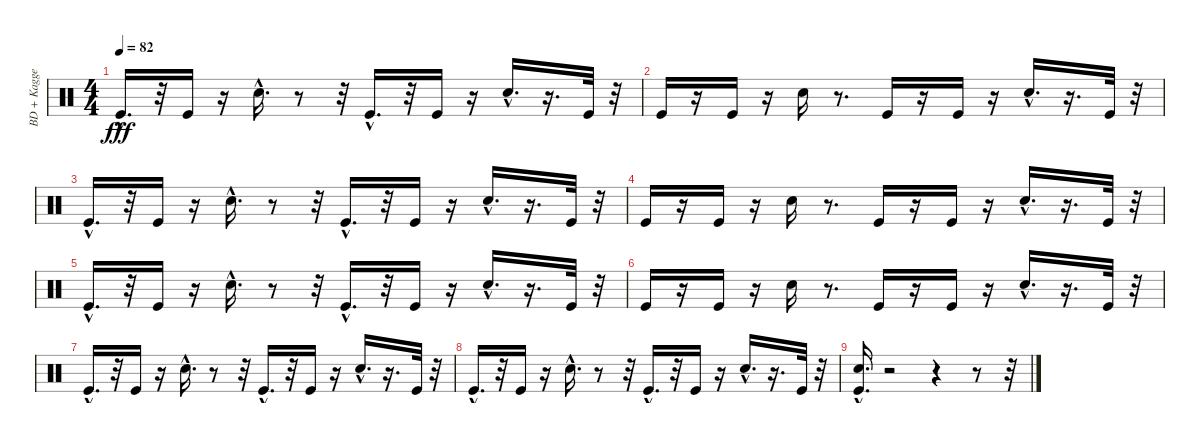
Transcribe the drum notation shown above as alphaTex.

\track ("BD + Kagge" "BD + Kagge") {instrument percussion}
\staff {score}
\articulation defaults
\ts (4 4)
\tempo 82
\clef neutral
\ks c "Kick (hit)"{hac}.16{d dy fff}
r.32 "Kick (hit)".16 r.16 "Electric Snare (hit)"{hac}.16{d} r.8 r.32 "Kick (hit)"{hac}.16{d} r.32 "Kick (hit)".16 r.16 "Electric Snare (hit)"{hac}.16{d} r.16{d} "Kick (hit)".32 r.32 |
"Kick (hit)".16 r.16 "Kick (hit)".16 r.16 "Electric Snare (hit)".16 r.8{d} "Kick (hit)".16 r.16 "Kick (hit)".16 r.16 "Electric Snare (hit)"{hac}.16{d} r.16{d} "Kick (hit)".32 r.32 |
"Kick (hit)"{hac}.16{d} r.32 "Kick (hit)".16 r.16 "Electric Snare (hit)"{hac}.16{d} r.8 r.32 "Kick (hit)"{hac}.16{d} r.32 "Kick (hit)".16 r.16 "Electric Snare (hit)"{hac}.16{d} r.16{d} "Kick (hit)".32 r.32 |
"Kick (hit)".16 r.16 "Kick (hit)".16 r.16 "Electric Snare (hit)".16 r.8{d} "Kick (hit)".16 r.16 "Kick (hit)".16 r.16 "Electric Snare (hit)"{hac}.16{d} r.16{d} "Kick (hit)".32 r.32 |
"Kick (hit)"{hac}.16{d} r.32 "Kick (hit)".16 r.16 "Electric Snare (hit)"{hac}.16{d} r.8 r.32 "Kick (hit)"{hac}.16{d} r.32 "Kick (hit)".16 r.16 "Electric Snare (hit)"{hac}.16{d} r.16{d} "Kick (hit)".32 r.32 |
"Kick (hit)".16 r.16 "Kick (hit)".16 r.16 "Electric Snare (hit)".16 r.8{d} "Kick (hit)".16 r.16 "Kick (hit)".16 r.16 "Electric Snare (hit)"{hac}.16{d} r.16{d} "Kick (hit)".32 r.32 |
"Kick (hit)"{hac}.16{d} r.32 "Kick (hit)".16 r.16 "Electric Snare (hit)"{hac}.16{d} r.8 r.32 "Kick (hit)"{hac}.16{d} r.32 "Kick (hit)".16 r.16 "Electric Snare (hit)"{hac}.16{d} r.16{d} "Kick (hit)".32 r.32 |
"Kick (hit)"{hac}.16{d} r.32 "Kick (hit)".16 r.16 "Electric Snare (hit)"{hac}.16{d} r.8 r.32 "Kick (hit)"{hac}.16{d} r.32 "Kick (hit)".16 r.16 "Electric Snare (hit)"{hac}.16{d} r.16{d} "Kick (hit)".32 r.32 |
("Electric Snare (hit)"{hac} "Kick (hit)"{hac}).16{d} r.2 r.4 r.8 r.32
